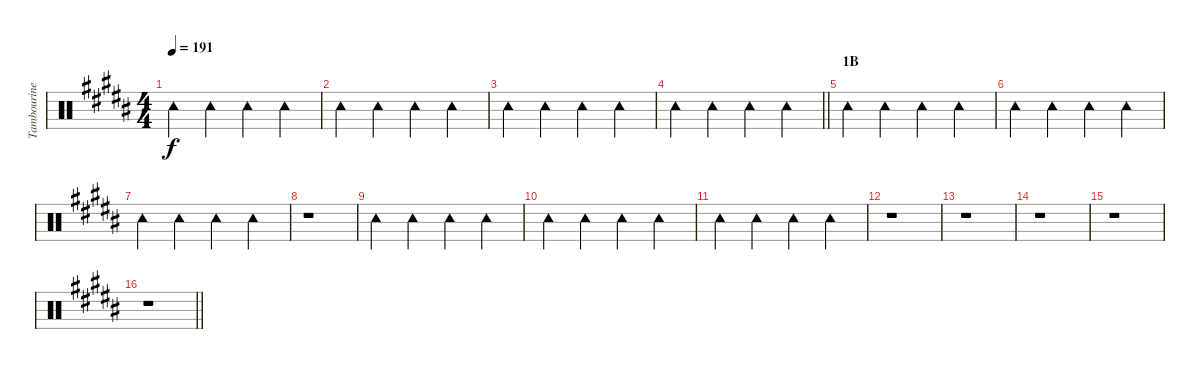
\track ("Tambourine" "Tambourine") {instrument percussion}
\staff {score}
\articulation defaults
\ts (4 4)
\tempo 191
\clef neutral
\ks b "Tambourine (hit)".4{dy f} "Tambourine (hit)".4 "Tambourine (hit)".4 "Tambourine (hit)".4
|
"Tambourine (hit)".4 "Tambourine (hit)".4 "Tambourine (hit)".4 "Tambourine (hit)".4 |
"Tambourine (hit)".4 "Tambourine (hit)".4 "Tambourine (hit)".4 "Tambourine (hit)".4 |
\barLineRight lightlight "Tambourine (hit)".4 "Tambourine (hit)".4 "Tambourine (hit)".4 "Tambourine (hit)".4
|
\section ("" "1B")
"Tambourine (hit)".4 "Tambourine (hit)".4 "Tambourine (hit)".4 "Tambourine (hit)".4 |
"Tambourine (hit)".4 "Tambourine (hit)".4 "Tambourine (hit)".4 "Tambourine (hit)".4 |
"Tambourine (hit)".4 "Tambourine (hit)".4 "Tambourine (hit)".4 "Tambourine (hit)".4 |
r.1 |
"Tambourine (hit)".4 "Tambourine (hit)".4 "Tambourine (hit)".4 "Tambourine (hit)".4 |
"Tambourine (hit)".4 "Tambourine (hit)".4 "Tambourine (hit)".4 "Tambourine (hit)".4 |
"Tambourine (hit)".4 "Tambourine (hit)".4 "Tambourine (hit)".4 "Tambourine (hit)".4 |
r.1 |
r.1 |
r.1 |
r.1 |
\barLineRight lightlight
r.1
